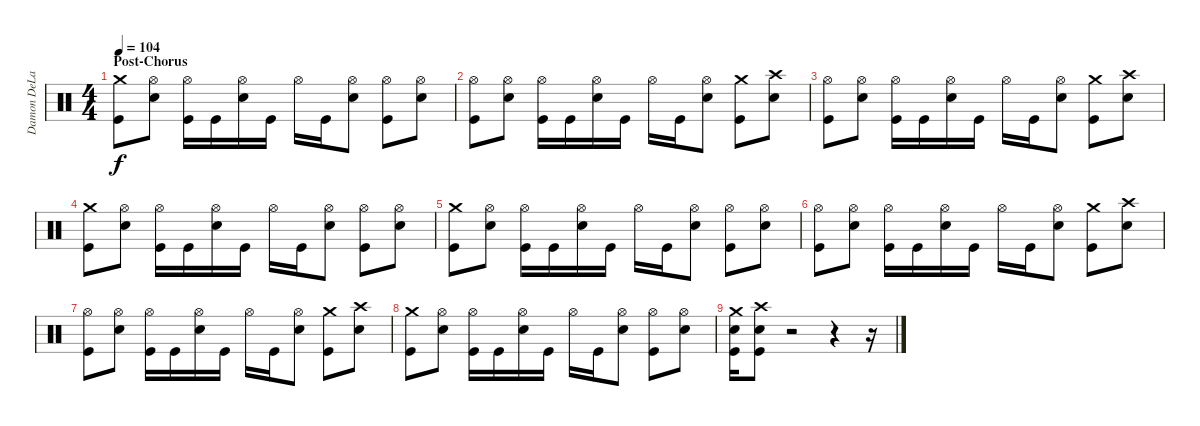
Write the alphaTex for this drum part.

\track ("Damon DeLapaz - Drums" "Damon DeLa") {instrument percussion}
\staff {score}
\articulation defaults
\ts (4 4)
\section ("" "Post-Chorus")
\tempo 104
\clef neutral
\ks c
("Crash medium (hit)" "Kick (hit)").8{dy f} ("Hi-Hat (open)" "Snare (hit) 2").8 ("Hi-Hat (open)" "Kick (hit)").16 "Kick (hit)".16 ("Hi-Hat (open)" "Snare (hit) 2").16 "Kick (hit)".16 "Hi-Hat (open)".16 "Kick (hit)".16 ("Hi-Hat (open)" "Snare (hit) 2").8 ("Hi-Hat (open)" "Kick (hit)").8 ("Hi-Hat (open)" "Snare (hit) 2").8 |
("Hi-Hat (open)" "Kick (hit)").8 ("Hi-Hat (open)" "Snare (hit) 2").8 ("Hi-Hat (open)" "Kick (hit)").16 "Kick (hit)".16 ("Hi-Hat (open)" "Snare (hit) 2").16 "Kick (hit)".16 "Hi-Hat (open)".16 "Kick (hit)".16 ("Hi-Hat (open)" "Snare (hit) 2").8 ("Crash medium (hit)" "Kick (hit)").8 ("Crash high (hit)" "Snare (hit) 2").8 |
("Hi-Hat (open)" "Kick (hit)").8 ("Hi-Hat (open)" "Snare (hit) 2").8 ("Hi-Hat (open)" "Kick (hit)").16 "Kick (hit)".16 ("Hi-Hat (open)" "Snare (hit) 2").16 "Kick (hit)".16 "Hi-Hat (open)".16 "Kick (hit)".16 ("Hi-Hat (open)" "Snare (hit) 2").8 ("Crash medium (hit)" "Kick (hit)").8 ("Crash high (hit)" "Snare (hit) 2").8 |
("Crash medium (hit)" "Kick (hit)").8 ("Hi-Hat (open)" "Snare (hit) 2").8 ("Hi-Hat (open)" "Kick (hit)").16 "Kick (hit)".16 ("Hi-Hat (open)" "Snare (hit) 2").16 "Kick (hit)".16 "Hi-Hat (open)".16 "Kick (hit)".16 ("Hi-Hat (open)" "Snare (hit) 2").8 ("Hi-Hat (open)" "Kick (hit)").8 ("Hi-Hat (open)" "Snare (hit) 2").8 |
("Crash medium (hit)" "Kick (hit)").8 ("Hi-Hat (open)" "Snare (hit) 2").8 ("Hi-Hat (open)" "Kick (hit)").16 "Kick (hit)".16 ("Hi-Hat (open)" "Snare (hit) 2").16 "Kick (hit)".16 "Hi-Hat (open)".16 "Kick (hit)".16 ("Hi-Hat (open)" "Snare (hit) 2").8 ("Hi-Hat (open)" "Kick (hit)").8 ("Hi-Hat (open)" "Snare (hit) 2").8 |
("Hi-Hat (open)" "Kick (hit)").8 ("Hi-Hat (open)" "Snare (hit) 2").8 ("Hi-Hat (open)" "Kick (hit)").16 "Kick (hit)".16 ("Hi-Hat (open)" "Snare (hit) 2").16 "Kick (hit)".16 "Hi-Hat (open)".16 "Kick (hit)".16 ("Hi-Hat (open)" "Snare (hit) 2").8 ("Crash medium (hit)" "Kick (hit)").8 ("Crash high (hit)" "Snare (hit) 2").8 |
("Hi-Hat (open)" "Kick (hit)").8 ("Hi-Hat (open)" "Snare (hit) 2").8 ("Hi-Hat (open)" "Kick (hit)").16 "Kick (hit)".16 ("Hi-Hat (open)" "Snare (hit) 2").16 "Kick (hit)".16 "Hi-Hat (open)".16 "Kick (hit)".16 ("Hi-Hat (open)" "Snare (hit) 2").8 ("Crash medium (hit)" "Kick (hit)").8 ("Crash high (hit)" "Snare (hit) 2").8 |
("Crash medium (hit)" "Kick (hit)").8 ("Hi-Hat (open)" "Snare (hit) 2").8 ("Hi-Hat (open)" "Kick (hit)").16 "Kick (hit)".16 ("Hi-Hat (open)" "Snare (hit) 2").16 "Kick (hit)".16 "Hi-Hat (open)".16 "Kick (hit)".16 ("Hi-Hat (open)" "Snare (hit) 2").8 ("Hi-Hat (open)" "Kick (hit)").8 ("Hi-Hat (open)" "Snare (hit) 2").8 |
("Crash medium (hit)" "Snare (hit) 2" "Kick (hit)").16 ("Crash high (hit)" "Snare (hit) 2" "Kick (hit)").8 r.2 r.4 r.16
